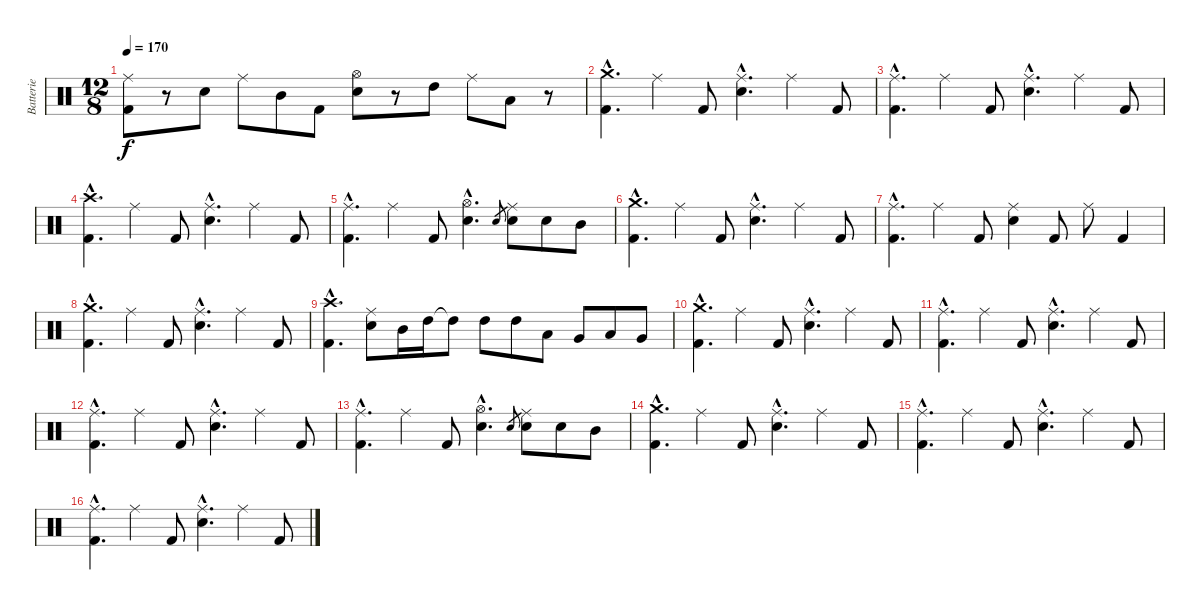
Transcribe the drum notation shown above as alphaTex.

\track ("Batterie" "Batterie") {instrument percussion}
\staff {score}
\articulation defaults
\ts (12 8)
\tempo 170
\clef neutral
\ks c
("Ride (middle)" "Kick (hit) 2").8{dy f} r.8 "Electric Snare (hit)".8 "Ride (middle)".8 "Mid Tom (hit)".8 "Kick (hit) 2".8 ("Hi-Hat (open)" "Electric Snare (hit)").8 r.8 "High Tom (hit)".8 "Ride (middle)".8 "Low Tom (hit)".8 r.8 |
("Crash medium (hit)"{hac} "Kick (hit) 2"{hac}).4{d} "Ride (middle)".4 "Kick (hit) 2".8 ("Ride (middle)"{hac} "Electric Snare (hit)"{hac}).4{d} "Ride (middle)".4 "Kick (hit) 2".8 |
("Ride (middle)"{hac} "Kick (hit) 2"{hac}).4{d} "Ride (middle)".4 "Kick (hit) 2".8 ("Ride (middle)"{hac} "Electric Snare (hit)"{hac}).4{d} "Ride (middle)".4 "Kick (hit) 2".8 |
("Crash high (hit)"{hac} "Kick (hit) 2"{hac}).4{d} "Ride (middle)".4 "Kick (hit) 2".8 ("Ride (middle)"{hac} "Electric Snare (hit)"{hac}).4{d} "Ride (middle)".4 "Kick (hit) 2".8 |
("Ride (middle)"{hac} "Kick (hit) 2"{hac}).4{d} "Ride (middle)".4 "Kick (hit) 2".8 ("Hi-Hat (open)"{hac} "Electric Snare (hit)"{hac}).4{d} "Electric Snare (hit)".8{gr} ("Ride (middle)" "Electric Snare (hit)").8 "Electric Snare (hit)".8 "Mid Tom (hit)".8 |
("Crash medium (hit)"{hac} "Kick (hit) 2"{hac}).4{d} "Ride (middle)".4 "Kick (hit) 2".8 ("Ride (middle)"{hac} "Electric Snare (hit)"{hac}).4{d} "Ride (middle)".4 "Kick (hit) 2".8 |
("Ride (middle)"{hac} "Kick (hit) 2"{hac}).4{d} "Ride (middle)".4 "Kick (hit) 2".8 ("Ride (middle)" "Electric Snare (hit)").4 "Kick (hit) 2".8 "Ride (middle)".8 "Kick (hit) 2".4 |
("Crash medium (hit)"{hac} "Kick (hit) 2"{hac}).4{d} "Ride (middle)".4 "Kick (hit) 2".8 ("Ride (middle)"{hac} "Electric Snare (hit)"{hac}).4{d} "Ride (middle)".4 "Kick (hit) 2".8 |
("Crash high (hit)"{hac} "Kick (hit) 2"{hac}).4{d} ("Ride (middle)" "Electric Snare (hit)").8 "Mid Tom (hit)".16 "High Tom (hit)".16 "High Tom (hit)"{t}.8 "High Tom (hit)".8 "High Tom (hit)".8 "Low Tom (hit)".8 "Very Low Tom (hit)".8 "Low Tom (hit)".8 "Very Low Tom (hit)".8 |
("Crash medium (hit)"{hac} "Kick (hit) 2"{hac}).4{d} "Ride (middle)".4 "Kick (hit) 2".8 ("Ride (middle)"{hac} "Electric Snare (hit)"{hac}).4{d} "Ride (middle)".4 "Kick (hit) 2".8 |
("Ride (middle)"{hac} "Kick (hit) 2"{hac}).4{d} "Ride (middle)".4 "Kick (hit) 2".8 ("Ride (middle)"{hac} "Electric Snare (hit)"{hac}).4{d} "Ride (middle)".4 "Kick (hit) 2".8 |
("Ride (middle)"{hac} "Kick (hit) 2"{hac}).4{d} "Ride (middle)".4 "Kick (hit) 2".8 ("Ride (middle)"{hac} "Electric Snare (hit)"{hac}).4{d} "Ride (middle)".4 "Kick (hit) 2".8 |
("Ride (middle)"{hac} "Kick (hit) 2"{hac}).4{d} "Ride (middle)".4 "Kick (hit) 2".8 ("Hi-Hat (open)"{hac} "Electric Snare (hit)"{hac}).4{d} "Electric Snare (hit)".8{gr} ("Ride (middle)" "Electric Snare (hit)").8 "Electric Snare (hit)".8 "Mid Tom (hit)".8 |
("Crash medium (hit)"{hac} "Kick (hit) 2"{hac}).4{d} "Ride (middle)".4 "Kick (hit) 2".8 ("Ride (middle)"{hac} "Electric Snare (hit)"{hac}).4{d} "Ride (middle)".4 "Kick (hit) 2".8 |
("Ride (middle)"{hac} "Kick (hit) 2"{hac}).4{d} "Ride (middle)".4 "Kick (hit) 2".8 ("Ride (middle)"{hac} "Electric Snare (hit)"{hac}).4{d} "Ride (middle)".4 "Kick (hit) 2".8 |
("Ride (middle)"{hac} "Kick (hit) 2"{hac}).4{d} "Ride (middle)".4 "Kick (hit) 2".8 ("Ride (middle)"{hac} "Electric Snare (hit)"{hac}).4{d} "Ride (middle)".4 "Kick (hit) 2".8
